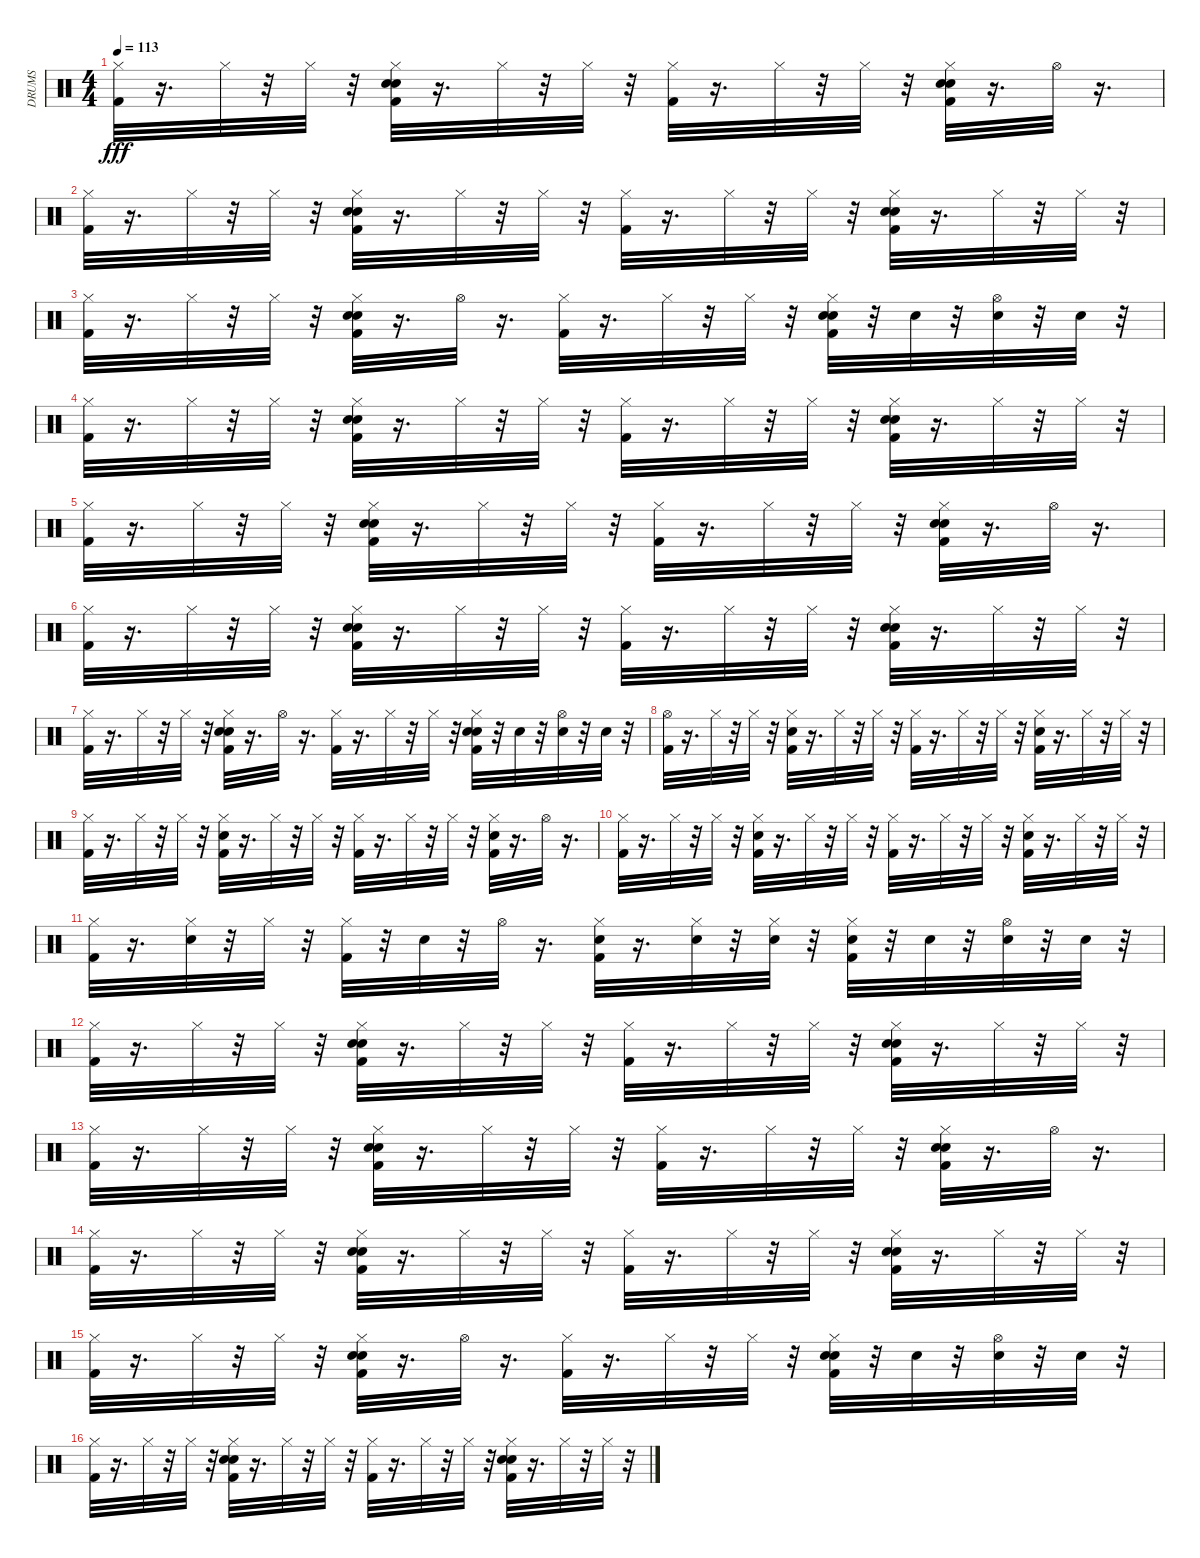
\track ("DRUMS" "DRUMS") {instrument percussion}
\staff {score}
\articulation defaults
\ts (4 4)
\tempo 113
\clef neutral
\ks c
("Hi-Hat (closed)" "Kick (hit) 2").32{dy fff} r.16{d} "Hi-Hat (closed)".32 r.32 "Hi-Hat (closed)".32 r.32 ("Hi-Hat (closed)" "Snare (hit) 2" "Kick (hit) 2" "Hand Clap (hit)").32 r.16{d} "Hi-Hat (closed)".32 r.32 "Hi-Hat (closed)".32 r.32 ("Hi-Hat (closed)" "Kick (hit) 2").32 r.16{d} "Hi-Hat (closed)".32 r.32 "Hi-Hat (closed)".32 r.32 ("Hi-Hat (closed)" "Snare (hit) 2" "Kick (hit) 2" "Hand Clap (hit)").32 r.16{d} "Hi-Hat (open)".32 r.16{d} |
("Hi-Hat (closed)" "Kick (hit) 2").32 r.16{d} "Hi-Hat (closed)".32 r.32 "Hi-Hat (closed)".32 r.32 ("Hi-Hat (closed)" "Snare (hit) 2" "Kick (hit) 2" "Hand Clap (hit)").32 r.16{d} "Hi-Hat (closed)".32 r.32 "Hi-Hat (closed)".32 r.32 ("Hi-Hat (closed)" "Kick (hit) 2").32 r.16{d} "Hi-Hat (closed)".32 r.32 "Hi-Hat (closed)".32 r.32 ("Hi-Hat (closed)" "Snare (hit) 2" "Kick (hit) 2" "Hand Clap (hit)").32 r.16{d} "Hi-Hat (closed)".32 r.32 "Hi-Hat (closed)".32 r.32 |
("Hi-Hat (closed)" "Kick (hit) 2").32 r.16{d} "Hi-Hat (closed)".32 r.32 "Hi-Hat (closed)".32 r.32 ("Hi-Hat (closed)" "Snare (hit) 2" "Kick (hit) 2" "Hand Clap (hit)").32 r.16{d} "Hi-Hat (open)".32 r.16{d} ("Hi-Hat (closed)" "Kick (hit) 2").32 r.16{d} "Hi-Hat (closed)".32 r.32 "Hi-Hat (closed)".32 r.32 ("Hi-Hat (closed)" "Snare (hit) 2" "Kick (hit) 2" "Hand Clap (hit)").32 r.32 "Hand Clap (hit)".32 r.32 ("Hi-Hat (open)" "Hand Clap (hit)").32 r.32 "Hand Clap (hit)".32 r.32 |
("Hi-Hat (closed)" "Kick (hit) 2").32 r.16{d} "Hi-Hat (closed)".32 r.32 "Hi-Hat (closed)".32 r.32 ("Hi-Hat (closed)" "Snare (hit) 2" "Kick (hit) 2" "Hand Clap (hit)").32 r.16{d} "Hi-Hat (closed)".32 r.32 "Hi-Hat (closed)".32 r.32 ("Hi-Hat (closed)" "Kick (hit) 2").32 r.16{d} "Hi-Hat (closed)".32 r.32 "Hi-Hat (closed)".32 r.32 ("Hi-Hat (closed)" "Snare (hit) 2" "Kick (hit) 2" "Hand Clap (hit)").32 r.16{d} "Hi-Hat (closed)".32 r.32 "Hi-Hat (closed)".32 r.32 |
("Hi-Hat (closed)" "Kick (hit) 2").32 r.16{d} "Hi-Hat (closed)".32 r.32 "Hi-Hat (closed)".32 r.32 ("Hi-Hat (closed)" "Snare (hit) 2" "Kick (hit) 2" "Hand Clap (hit)").32 r.16{d} "Hi-Hat (closed)".32 r.32 "Hi-Hat (closed)".32 r.32 ("Hi-Hat (closed)" "Kick (hit) 2").32 r.16{d} "Hi-Hat (closed)".32 r.32 "Hi-Hat (closed)".32 r.32 ("Hi-Hat (closed)" "Snare (hit) 2" "Kick (hit) 2" "Hand Clap (hit)").32 r.16{d} "Hi-Hat (open)".32 r.16{d} |
("Hi-Hat (closed)" "Kick (hit) 2").32 r.16{d} "Hi-Hat (closed)".32 r.32 "Hi-Hat (closed)".32 r.32 ("Hi-Hat (closed)" "Snare (hit) 2" "Kick (hit) 2" "Hand Clap (hit)").32 r.16{d} "Hi-Hat (closed)".32 r.32 "Hi-Hat (closed)".32 r.32 ("Hi-Hat (closed)" "Kick (hit) 2").32 r.16{d} "Hi-Hat (closed)".32 r.32 "Hi-Hat (closed)".32 r.32 ("Hi-Hat (closed)" "Snare (hit) 2" "Kick (hit) 2" "Hand Clap (hit)").32 r.16{d} "Hi-Hat (closed)".32 r.32 "Hi-Hat (closed)".32 r.32 |
("Hi-Hat (closed)" "Kick (hit) 2").32 r.16{d} "Hi-Hat (closed)".32 r.32 "Hi-Hat (closed)".32 r.32 ("Hi-Hat (closed)" "Snare (hit) 2" "Kick (hit) 2" "Hand Clap (hit)").32 r.16{d} "Hi-Hat (open)".32 r.16{d} ("Hi-Hat (closed)" "Kick (hit) 2").32 r.16{d} "Hi-Hat (closed)".32 r.32 "Hi-Hat (closed)".32 r.32 ("Hi-Hat (closed)" "Snare (hit) 2" "Kick (hit) 2" "Hand Clap (hit)").32 r.32 "Hand Clap (hit)".32 r.32 ("Hi-Hat (open)" "Hand Clap (hit)").32 r.32 "Hand Clap (hit)".32 r.32 |
("Hi-Hat (open)" "Kick (hit) 2").32 r.16{d} "Hi-Hat (closed)".32 r.32 "Hi-Hat (closed)".32 r.32 ("Hi-Hat (closed)" "Snare (hit) 2" "Kick (hit) 2").32 r.16{d} "Hi-Hat (closed)".32 r.32 "Hi-Hat (closed)".32 r.32 ("Hi-Hat (closed)" "Kick (hit) 2").32 r.16{d} "Hi-Hat (closed)".32 r.32 "Hi-Hat (closed)".32 r.32 ("Hi-Hat (closed)" "Snare (hit) 2" "Kick (hit) 2").32 r.16{d} "Hi-Hat (closed)".32 r.32 "Hi-Hat (closed)".32 r.32 |
("Hi-Hat (closed)" "Kick (hit) 2").32 r.16{d} "Hi-Hat (closed)".32 r.32 "Hi-Hat (closed)".32 r.32 ("Hi-Hat (closed)" "Snare (hit) 2" "Kick (hit) 2").32 r.16{d} "Hi-Hat (closed)".32 r.32 "Hi-Hat (closed)".32 r.32 ("Hi-Hat (closed)" "Kick (hit) 2").32 r.16{d} "Hi-Hat (closed)".32 r.32 "Hi-Hat (closed)".32 r.32 ("Hi-Hat (closed)" "Snare (hit) 2" "Kick (hit) 2").32 r.16{d} "Hi-Hat (open)".32 r.16{d} |
("Hi-Hat (closed)" "Kick (hit) 2").32 r.16{d} "Hi-Hat (closed)".32 r.32 "Hi-Hat (closed)".32 r.32 ("Hi-Hat (closed)" "Snare (hit) 2" "Kick (hit) 2").32 r.16{d} "Hi-Hat (closed)".32 r.32 "Hi-Hat (closed)".32 r.32 ("Hi-Hat (closed)" "Kick (hit) 2").32 r.16{d} "Hi-Hat (closed)".32 r.32 "Hi-Hat (closed)".32 r.32 ("Hi-Hat (closed)" "Snare (hit) 2" "Kick (hit) 2").32 r.16{d} "Hi-Hat (closed)".32 r.32 "Hi-Hat (closed)".32 r.32 |
("Hi-Hat (closed)" "Kick (hit) 2").32 r.16{d} ("Hi-Hat (closed)" "Snare (hit) 2").32 r.32 "Hi-Hat (closed)".32 r.32 ("Hi-Hat (closed)" "Kick (hit) 2").32 r.32 "Snare (hit) 2".32 r.32 "Hi-Hat (open)".32 r.16{d} ("Hi-Hat (closed)" "Snare (hit) 2" "Kick (hit) 2").32 r.16{d} ("Hi-Hat (closed)" "Snare (hit) 2").32 r.32 ("Hi-Hat (closed)" "Snare (hit) 2").32 r.32 ("Hi-Hat (closed)" "Snare (hit) 2" "Kick (hit) 2").32 r.32 "Snare (hit) 2".32 r.32 ("Hi-Hat (open)" "Snare (hit) 2").32 r.32 "Snare (hit) 2".32 r.32 |
("Hi-Hat (closed)" "Kick (hit) 2").32 r.16{d} "Hi-Hat (closed)".32 r.32 "Hi-Hat (closed)".32 r.32 ("Hi-Hat (closed)" "Snare (hit) 2" "Kick (hit) 2" "Hand Clap (hit)").32 r.16{d} "Hi-Hat (closed)".32 r.32 "Hi-Hat (closed)".32 r.32 ("Hi-Hat (closed)" "Kick (hit) 2").32 r.16{d} "Hi-Hat (closed)".32 r.32 "Hi-Hat (closed)".32 r.32 ("Hi-Hat (closed)" "Snare (hit) 2" "Kick (hit) 2" "Hand Clap (hit)").32 r.16{d} "Hi-Hat (closed)".32 r.32 "Hi-Hat (closed)".32 r.32 |
("Hi-Hat (closed)" "Kick (hit) 2").32 r.16{d} "Hi-Hat (closed)".32 r.32 "Hi-Hat (closed)".32 r.32 ("Hi-Hat (closed)" "Snare (hit) 2" "Kick (hit) 2" "Hand Clap (hit)").32 r.16{d} "Hi-Hat (closed)".32 r.32 "Hi-Hat (closed)".32 r.32 ("Hi-Hat (closed)" "Kick (hit) 2").32 r.16{d} "Hi-Hat (closed)".32 r.32 "Hi-Hat (closed)".32 r.32 ("Hi-Hat (closed)" "Snare (hit) 2" "Kick (hit) 2" "Hand Clap (hit)").32 r.16{d} "Hi-Hat (open)".32 r.16{d} |
("Hi-Hat (closed)" "Kick (hit) 2").32 r.16{d} "Hi-Hat (closed)".32 r.32 "Hi-Hat (closed)".32 r.32 ("Hi-Hat (closed)" "Snare (hit) 2" "Kick (hit) 2" "Hand Clap (hit)").32 r.16{d} "Hi-Hat (closed)".32 r.32 "Hi-Hat (closed)".32 r.32 ("Hi-Hat (closed)" "Kick (hit) 2").32 r.16{d} "Hi-Hat (closed)".32 r.32 "Hi-Hat (closed)".32 r.32 ("Hi-Hat (closed)" "Snare (hit) 2" "Kick (hit) 2" "Hand Clap (hit)").32 r.16{d} "Hi-Hat (closed)".32 r.32 "Hi-Hat (closed)".32 r.32 |
("Hi-Hat (closed)" "Kick (hit) 2").32 r.16{d} "Hi-Hat (closed)".32 r.32 "Hi-Hat (closed)".32 r.32 ("Hi-Hat (closed)" "Snare (hit) 2" "Kick (hit) 2" "Hand Clap (hit)").32 r.16{d} "Hi-Hat (open)".32 r.16{d} ("Hi-Hat (closed)" "Kick (hit) 2").32 r.16{d} "Hi-Hat (closed)".32 r.32 "Hi-Hat (closed)".32 r.32 ("Hi-Hat (closed)" "Snare (hit) 2" "Kick (hit) 2" "Hand Clap (hit)").32 r.32 "Hand Clap (hit)".32 r.32 ("Hi-Hat (open)" "Hand Clap (hit)").32 r.32 "Hand Clap (hit)".32 r.32 |
("Hi-Hat (closed)" "Kick (hit) 2").32 r.16{d} "Hi-Hat (closed)".32 r.32 "Hi-Hat (closed)".32 r.32 ("Hi-Hat (closed)" "Snare (hit) 2" "Kick (hit) 2" "Hand Clap (hit)").32 r.16{d} "Hi-Hat (closed)".32 r.32 "Hi-Hat (closed)".32 r.32 ("Hi-Hat (closed)" "Kick (hit) 2").32 r.16{d} "Hi-Hat (closed)".32 r.32 "Hi-Hat (closed)".32 r.32 ("Hi-Hat (closed)" "Snare (hit) 2" "Kick (hit) 2" "Hand Clap (hit)").32 r.16{d} "Hi-Hat (closed)".32 r.32 "Hi-Hat (closed)".32 r.32
